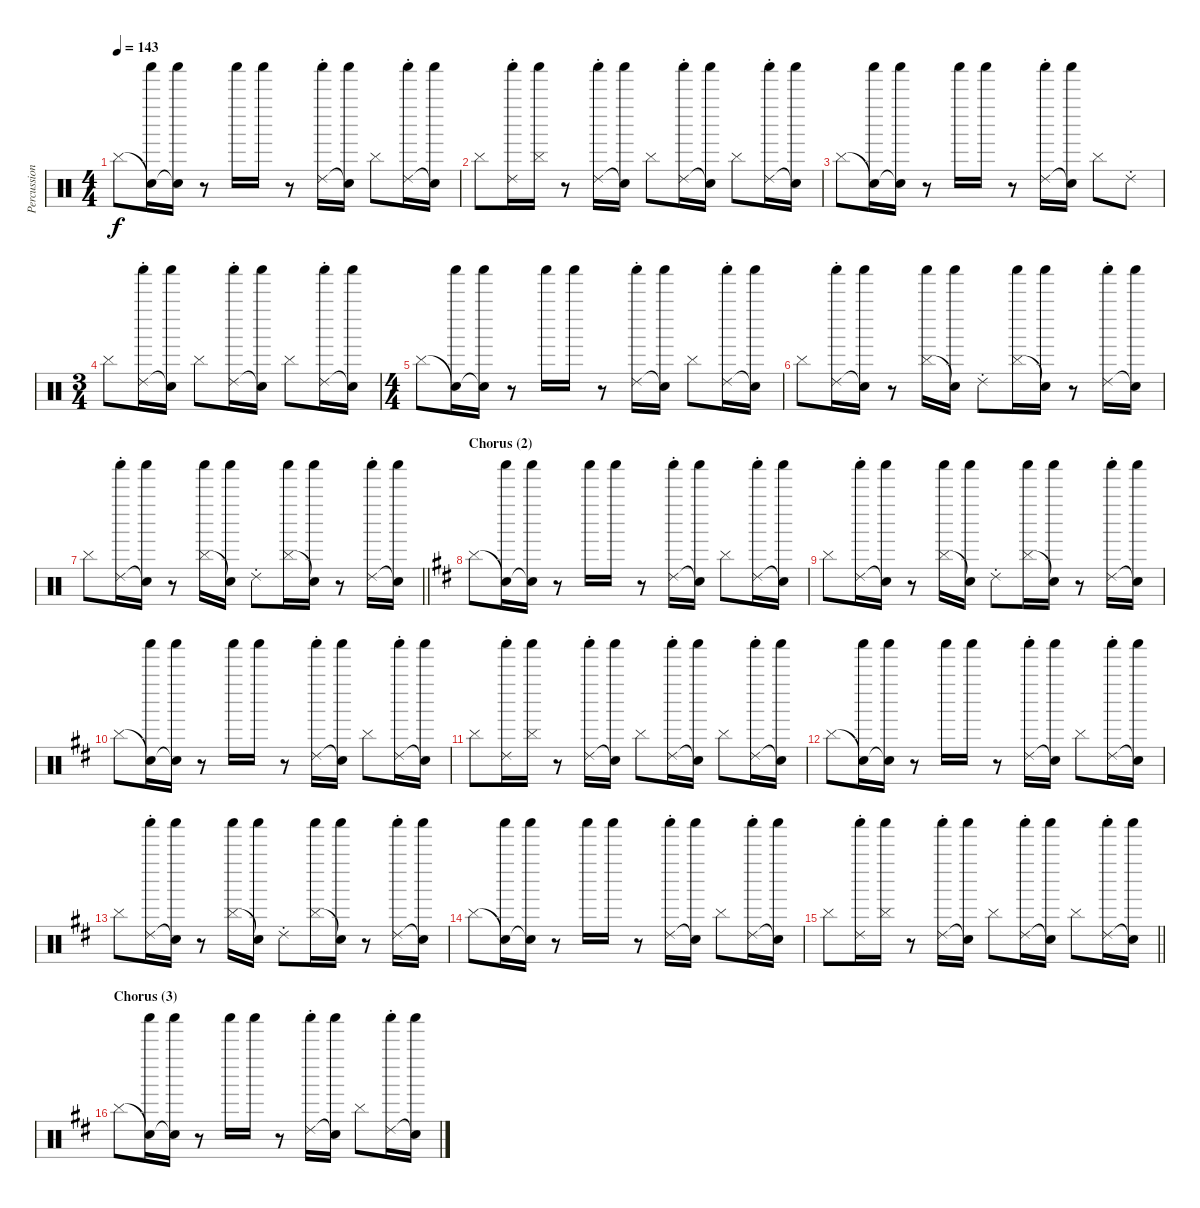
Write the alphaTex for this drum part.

\track ("Percussion" "Percussion") {instrument percussion}
\staff {score}
\articulation defaults
\ts (4 4)
\tempo 143
\clef neutral
\ks aminor "Cymbal (hit)".8{dy f}
("Snare (hit)"{t} "Shaker (hit)").16 ("Snare (hit)"{t} "Shaker (hit)").16 r.8 "Shaker (hit)".16 "Shaker (hit)".16 r.8 ("Ride (choke) 2" "Shaker (hit)").16 ("Snare (hit)"{t} "Shaker (hit)").16 "Cymbal (hit)".8 ("Ride (choke) 2" "Shaker (hit)").16 ("Snare (hit)"{t} "Shaker (hit)").16 |
"Cymbal (hit)".8 ("Ride (choke) 2" "Shaker (hit)").16 ("Cymbal (hit)" "Shaker (hit)").16 r.8 ("Ride (choke) 2" "Shaker (hit)").16 ("Snare (hit)"{t} "Shaker (hit)").16 "Cymbal (hit)".8 ("Ride (choke) 2" "Shaker (hit)").16 ("Snare (hit)"{t} "Shaker (hit)").16 "Cymbal (hit)".8 ("Ride (choke) 2" "Shaker (hit)").16 ("Snare (hit)"{t} "Shaker (hit)").16 |
"Cymbal (hit)".8 ("Snare (hit)"{t} "Shaker (hit)").16 ("Snare (hit)"{t} "Shaker (hit)").16 r.8 "Shaker (hit)".16 "Shaker (hit)".16 r.8 ("Ride (choke) 2" "Shaker (hit)").16 ("Snare (hit)"{t} "Shaker (hit)").16 "Cymbal (hit)".8 "Ride (choke) 2".8 |
\ts (3 4)
"Cymbal (hit)".8 ("Ride (choke) 2" "Shaker (hit)").16 ("Snare (hit)"{t} "Shaker (hit)").16 "Cymbal (hit)".8 ("Ride (choke) 2" "Shaker (hit)").16 ("Snare (hit)"{t} "Shaker (hit)").16 "Cymbal (hit)".8 ("Ride (choke) 2" "Shaker (hit)").16 ("Snare (hit)"{t} "Shaker (hit)").16 |
\ts (4 4)
"Cymbal (hit)".8 ("Snare (hit)"{t} "Shaker (hit)").16 ("Snare (hit)"{t} "Shaker (hit)").16 r.8 "Shaker (hit)".16 "Shaker (hit)".16 r.8 ("Ride (choke) 2" "Shaker (hit)").16 ("Snare (hit)"{t} "Shaker (hit)").16 "Cymbal (hit)".8 ("Ride (choke) 2" "Shaker (hit)").16 ("Snare (hit)"{t} "Shaker (hit)").16 |
"Cymbal (hit)".8 ("Ride (choke) 2" "Shaker (hit)").16 ("Snare (hit)"{t} "Shaker (hit)").16 r.8 ("Cymbal (hit)" "Shaker (hit)").16 ("Snare (hit)"{t} "Shaker (hit)").16 "Ride (choke) 2".8 ("Cymbal (hit)" "Shaker (hit)").16 ("Snare (hit)"{t} "Shaker (hit)").16 r.8 ("Ride (choke) 2" "Shaker (hit)").16 ("Snare (hit)"{t} "Shaker (hit)").16 |
\barLineRight lightlight "Cymbal (hit)".8
("Ride (choke) 2" "Shaker (hit)").16 ("Snare (hit)"{t} "Shaker (hit)").16 r.8 ("Cymbal (hit)" "Shaker (hit)").16 ("Snare (hit)"{t} "Shaker (hit)").16 "Ride (choke) 2".8 ("Cymbal (hit)" "Shaker (hit)").16 ("Snare (hit)"{t} "Shaker (hit)").16 r.8 ("Ride (choke) 2" "Shaker (hit)").16 ("Snare (hit)"{t} "Shaker (hit)").16 |
\section ("" "Chorus (2)")
\ks d "Cymbal (hit)".8
("Snare (hit)"{t} "Shaker (hit)").16 ("Snare (hit)"{t} "Shaker (hit)").16 r.8 "Shaker (hit)".16 "Shaker (hit)".16 r.8 ("Ride (choke) 2" "Shaker (hit)").16 ("Snare (hit)"{t} "Shaker (hit)").16 "Cymbal (hit)".8 ("Ride (choke) 2" "Shaker (hit)").16 ("Snare (hit)"{t} "Shaker (hit)").16 |
"Cymbal (hit)".8 ("Ride (choke) 2" "Shaker (hit)").16 ("Snare (hit)"{t} "Shaker (hit)").16 r.8 ("Cymbal (hit)" "Shaker (hit)").16 ("Snare (hit)"{t} "Shaker (hit)").16 "Ride (choke) 2".8 ("Cymbal (hit)" "Shaker (hit)").16 ("Snare (hit)"{t} "Shaker (hit)").16 r.8 ("Ride (choke) 2" "Shaker (hit)").16 ("Snare (hit)"{t} "Shaker (hit)").16 |
"Cymbal (hit)".8 ("Snare (hit)"{t} "Shaker (hit)").16 ("Snare (hit)"{t} "Shaker (hit)").16 r.8 "Shaker (hit)".16 "Shaker (hit)".16 r.8 ("Ride (choke) 2" "Shaker (hit)").16 ("Snare (hit)"{t} "Shaker (hit)").16 "Cymbal (hit)".8 ("Ride (choke) 2" "Shaker (hit)").16 ("Snare (hit)"{t} "Shaker (hit)").16 |
"Cymbal (hit)".8 ("Ride (choke) 2" "Shaker (hit)").16 ("Cymbal (hit)" "Shaker (hit)").16 r.8 ("Ride (choke) 2" "Shaker (hit)").16 ("Snare (hit)"{t} "Shaker (hit)").16 "Cymbal (hit)".8 ("Ride (choke) 2" "Shaker (hit)").16 ("Snare (hit)"{t} "Shaker (hit)").16 "Cymbal (hit)".8 ("Ride (choke) 2" "Shaker (hit)").16 ("Snare (hit)"{t} "Shaker (hit)").16 |
"Cymbal (hit)".8 ("Snare (hit)"{t} "Shaker (hit)").16 ("Snare (hit)"{t} "Shaker (hit)").16 r.8 "Shaker (hit)".16 "Shaker (hit)".16 r.8 ("Ride (choke) 2" "Shaker (hit)").16 ("Snare (hit)"{t} "Shaker (hit)").16 "Cymbal (hit)".8 ("Ride (choke) 2" "Shaker (hit)").16 ("Snare (hit)"{t} "Shaker (hit)").16 |
"Cymbal (hit)".8 ("Ride (choke) 2" "Shaker (hit)").16 ("Snare (hit)"{t} "Shaker (hit)").16 r.8 ("Cymbal (hit)" "Shaker (hit)").16 ("Snare (hit)"{t} "Shaker (hit)").16 "Ride (choke) 2".8 ("Cymbal (hit)" "Shaker (hit)").16 ("Snare (hit)"{t} "Shaker (hit)").16 r.8 ("Ride (choke) 2" "Shaker (hit)").16 ("Snare (hit)"{t} "Shaker (hit)").16 |
"Cymbal (hit)".8 ("Snare (hit)"{t} "Shaker (hit)").16 ("Snare (hit)"{t} "Shaker (hit)").16 r.8 "Shaker (hit)".16 "Shaker (hit)".16 r.8 ("Ride (choke) 2" "Shaker (hit)").16 ("Snare (hit)"{t} "Shaker (hit)").16 "Cymbal (hit)".8 ("Ride (choke) 2" "Shaker (hit)").16 ("Snare (hit)"{t} "Shaker (hit)").16 |
\barLineRight lightlight "Cymbal (hit)".8
("Ride (choke) 2" "Shaker (hit)").16 ("Cymbal (hit)" "Shaker (hit)").16 r.8 ("Ride (choke) 2" "Shaker (hit)").16 ("Snare (hit)"{t} "Shaker (hit)").16 "Cymbal (hit)".8 ("Ride (choke) 2" "Shaker (hit)").16 ("Snare (hit)"{t} "Shaker (hit)").16 "Cymbal (hit)".8 ("Ride (choke) 2" "Shaker (hit)").16 ("Snare (hit)"{t} "Shaker (hit)").16 |
\section ("" "Chorus (3)")
"Cymbal (hit)".8 ("Snare (hit)"{t} "Shaker (hit)").16 ("Snare (hit)"{t} "Shaker (hit)").16 r.8 "Shaker (hit)".16 "Shaker (hit)".16 r.8 ("Ride (choke) 2" "Shaker (hit)").16 ("Snare (hit)"{t} "Shaker (hit)").16 "Cymbal (hit)".8 ("Ride (choke) 2" "Shaker (hit)").16 ("Snare (hit)"{t} "Shaker (hit)").16
